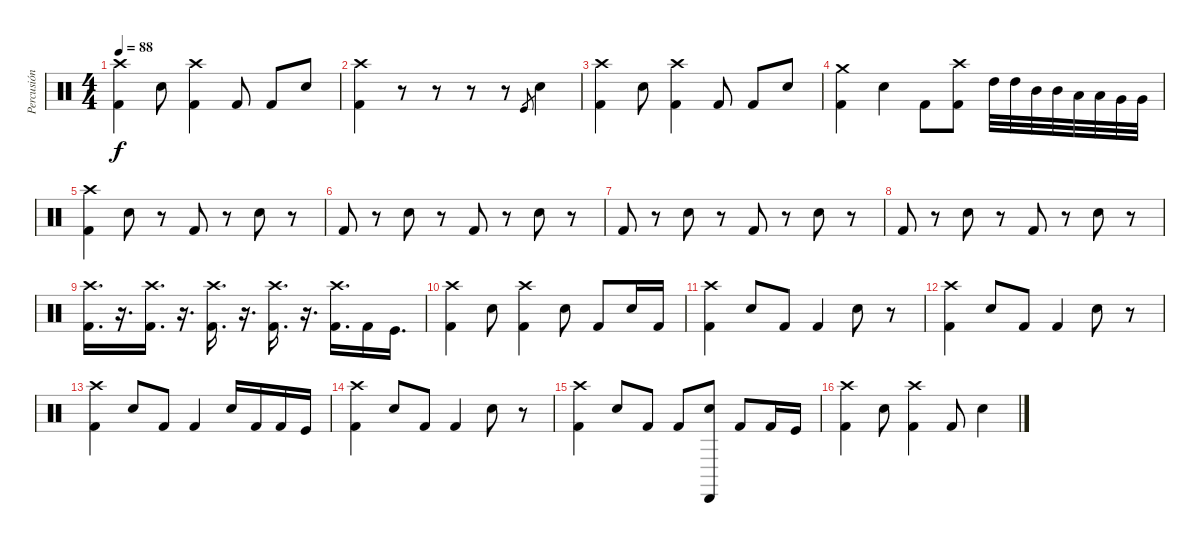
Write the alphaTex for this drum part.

\track ("Percusión" "Percusión") {instrument percussion}
\staff {score}
\articulation defaults
\ts (4 4)
\tempo 88
\clef neutral
\ks c
("Crash high (hit)" "Kick (hit) 2").4{dy f} "Snare (hit) 2".8 ("Crash high (hit)" "Kick (hit) 2").4 "Kick (hit) 2".8 "Kick (hit) 2".8 "Snare (hit) 2".8 |
("Crash high (hit)" "Kick (hit) 2").4 r.8 r.8 r.8 r.8 "Kick (hit)".8{gr} "Snare (hit) 2".4 |
("Crash high (hit)" "Kick (hit) 2").4 "Snare (hit) 2".8 ("Crash high (hit)" "Kick (hit) 2").4 "Kick (hit) 2".8 "Kick (hit) 2".8 "Snare (hit) 2".8 |
("Crash medium (hit)" "Kick (hit) 2").4 "Snare (hit) 2".4 "Kick (hit) 2".8 ("Crash high (hit)" "Kick (hit) 2").8 "High Tom (hit)".32 "High Tom (hit)".32 "Mid Tom (hit)".32 "Mid Tom (hit)".32 "Low Tom (hit)".32 "Low Tom (hit)".32 "Very Low Tom (hit)".32 "Very Low Tom (hit)".32 |
("Crash high (hit)" "Kick (hit) 2").4 "Snare (hit) 2".8 r.8 "Kick (hit) 2".8 r.8 "Snare (hit) 2".8 r.8 |
"Kick (hit) 2".8 r.8 "Snare (hit) 2".8 r.8 "Kick (hit) 2".8 r.8 "Snare (hit) 2".8 r.8 |
"Kick (hit) 2".8 r.8 "Snare (hit) 2".8 r.8 "Kick (hit) 2".8 r.8 "Snare (hit) 2".8 r.8 |
"Kick (hit) 2".8 r.8 "Snare (hit) 2".8 r.8 "Kick (hit) 2".8 r.8 "Snare (hit) 2".8 r.8 |
("Crash high (hit)" "Kick (hit) 2").16{d} r.16{d} ("Crash high (hit)" "Kick (hit) 2").16{d} r.16{d} ("Crash high (hit)" "Kick (hit) 2").16{d} r.16{d} ("Crash high (hit)" "Kick (hit) 2").16{d} r.16{d} ("Crash high (hit)" "Kick (hit) 2").16{d} "Kick (hit) 2".16 "Kick (hit)".16{d} |
("Crash high (hit)" "Kick (hit) 2").4 "Snare (hit) 2".8 ("Crash high (hit)" "Kick (hit) 2").4 "Snare (hit) 2".8 "Kick (hit) 2".8 "Snare (hit) 2".16 "Kick (hit) 2".16 |
("Crash high (hit)" "Kick (hit) 2").4 "Snare (hit) 2".8 "Kick (hit) 2".8 "Kick (hit) 2".4 "Snare (hit) 2".8 r.8 |
("Crash high (hit)" "Kick (hit) 2").4 "Snare (hit) 2".8 "Kick (hit) 2".8 "Kick (hit) 2".4 "Snare (hit) 2".8 r.8 |
("Crash high (hit)" "Kick (hit) 2").4 "Snare (hit) 2".8 "Kick (hit) 2".8 "Kick (hit) 2".4 "Snare (hit) 2".16 "Kick (hit) 2".16 "Kick (hit) 2".16 "Kick (hit)".16 |
("Crash high (hit)" "Kick (hit) 2").4 "Snare (hit) 2".8 "Kick (hit) 2".8 "Kick (hit) 2".4 "Snare (hit) 2".8 r.8 |
("Crash high (hit)" "Kick (hit) 2").4 "Snare (hit) 2".8 "Kick (hit) 2".8 "Kick (hit) 2".8 ("Cabasa (hit)" "Snare (hit) 2").8 "Kick (hit) 2".8 "Kick (hit) 2".16 "Kick (hit)".16 |
("Crash high (hit)" "Kick (hit) 2").4 "Snare (hit) 2".8 ("Crash high (hit)" "Kick (hit) 2").4 "Kick (hit) 2".8 "Snare (hit) 2".4
